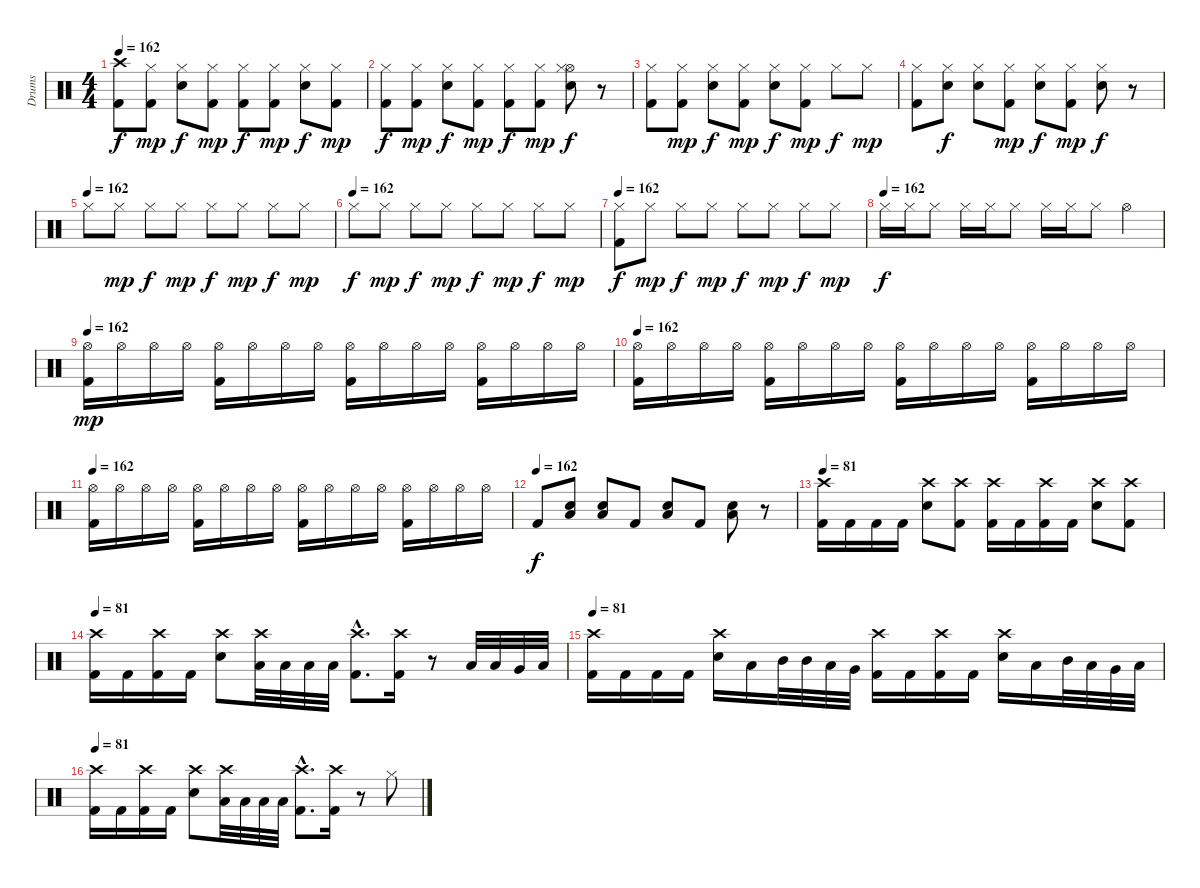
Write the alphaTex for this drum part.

\track ("Drums" "Drums") {instrument percussion}
\staff {score}
\articulation defaults
\ts (4 4)
\tempo 162
\clef neutral
\ks c
("Crash high (hit)" "Kick (hit) 2").8{dy f} ("Hi-Hat (closed)" "Kick (hit) 2").8{dy mp} ("Hi-Hat (closed)" "Electric Snare (hit)").8{dy f} ("Hi-Hat (closed)" "Kick (hit) 2").8{dy mp} ("Hi-Hat (closed)" "Kick (hit) 2").8{dy f} ("Hi-Hat (closed)" "Kick (hit) 2").8{dy mp} ("Hi-Hat (closed)" "Electric Snare (hit)").8{dy f} ("Hi-Hat (closed)" "Kick (hit) 2").8{dy mp} |
("Hi-Hat (closed)" "Kick (hit) 2").8{dy f} ("Hi-Hat (closed)" "Kick (hit) 2").8{dy mp} ("Hi-Hat (closed)" "Electric Snare (hit)").8{dy f} ("Hi-Hat (closed)" "Kick (hit) 2").8{dy mp} ("Hi-Hat (closed)" "Kick (hit) 2").8{dy f} ("Hi-Hat (closed)" "Kick (hit) 2").8{dy mp} ("Hi-Hat (open)" "Hi-Hat (closed)" "Electric Snare (hit)").8{dy f} r.8 |
("Hi-Hat (closed)" "Kick (hit) 2").8 ("Hi-Hat (closed)" "Kick (hit) 2").8{dy mp} ("Hi-Hat (closed)" "Electric Snare (hit)").8{dy f} ("Hi-Hat (closed)" "Kick (hit) 2").8{dy mp} ("Hi-Hat (closed)" "Electric Snare (hit)").8{dy f} ("Hi-Hat (closed)" "Kick (hit) 2").8{dy mp} "Hi-Hat (closed)".8{dy f} "Hi-Hat (closed)".8{dy mp} |
("Hi-Hat (closed)" "Kick (hit) 2").8 ("Hi-Hat (closed)" "Electric Snare (hit)").8{dy f} ("Hi-Hat (closed)" "Electric Snare (hit)").8 ("Hi-Hat (closed)" "Kick (hit) 2").8{dy mp} ("Hi-Hat (closed)" "Electric Snare (hit)").8{dy f} ("Hi-Hat (closed)" "Kick (hit) 2").8{dy mp} ("Hi-Hat (closed)" "Electric Snare (hit)").8{dy f} r.8 |
\tempo (162)
"Hi-Hat (closed)".8 "Hi-Hat (closed)".8{dy mp} "Hi-Hat (closed)".8{dy f} "Hi-Hat (closed)".8{dy mp} "Hi-Hat (closed)".8{dy f} "Hi-Hat (closed)".8{dy mp} "Hi-Hat (closed)".8{dy f} "Hi-Hat (closed)".8{dy mp} |
\tempo (162)
"Hi-Hat (closed)".8{dy f} "Hi-Hat (closed)".8{dy mp} "Hi-Hat (closed)".8{dy f} "Hi-Hat (closed)".8{dy mp} "Hi-Hat (closed)".8{dy f} "Hi-Hat (closed)".8{dy mp} "Hi-Hat (closed)".8{dy f} "Hi-Hat (closed)".8{dy mp} |
\tempo 162
("Hi-Hat (closed)" "Kick (hit) 2").8{dy f} "Hi-Hat (closed)".8{dy mp} "Hi-Hat (closed)".8{dy f} "Hi-Hat (closed)".8{dy mp} "Hi-Hat (closed)".8{dy f} "Hi-Hat (closed)".8{dy mp} "Hi-Hat (closed)".8{dy f} "Hi-Hat (closed)".8{dy mp} |
\tempo (162)
"Hi-Hat (closed)".16{dy f} "Hi-Hat (closed)".16 "Hi-Hat (closed)".8 "Hi-Hat (closed)".16 "Hi-Hat (closed)".16 "Hi-Hat (closed)".8 "Hi-Hat (closed)".16 "Hi-Hat (closed)".16 "Hi-Hat (closed)".8 "Hi-Hat (open)".4 |
\tempo 162
("Hi-Hat (open)" "Kick (hit) 2").16{dy mp} "Hi-Hat (open)".16 "Hi-Hat (open)".16 "Hi-Hat (open)".16 ("Hi-Hat (open)" "Kick (hit) 2").16 "Hi-Hat (open)".16 "Hi-Hat (open)".16 "Hi-Hat (open)".16 ("Hi-Hat (open)" "Kick (hit) 2").16 "Hi-Hat (open)".16 "Hi-Hat (open)".16 "Hi-Hat (open)".16 ("Hi-Hat (open)" "Kick (hit) 2").16 "Hi-Hat (open)".16 "Hi-Hat (open)".16 "Hi-Hat (open)".16 |
\tempo 162
("Hi-Hat (open)" "Kick (hit) 2").16 "Hi-Hat (open)".16 "Hi-Hat (open)".16 "Hi-Hat (open)".16 ("Hi-Hat (open)" "Kick (hit) 2").16 "Hi-Hat (open)".16 "Hi-Hat (open)".16 "Hi-Hat (open)".16 ("Hi-Hat (open)" "Kick (hit) 2").16 "Hi-Hat (open)".16 "Hi-Hat (open)".16 "Hi-Hat (open)".16 ("Hi-Hat (open)" "Kick (hit) 2").16 "Hi-Hat (open)".16 "Hi-Hat (open)".16 "Hi-Hat (open)".16 |
\tempo 162
("Hi-Hat (open)" "Kick (hit) 2").16 "Hi-Hat (open)".16 "Hi-Hat (open)".16 "Hi-Hat (open)".16 ("Hi-Hat (open)" "Kick (hit) 2").16 "Hi-Hat (open)".16 "Hi-Hat (open)".16 "Hi-Hat (open)".16 ("Hi-Hat (open)" "Kick (hit) 2").16 "Hi-Hat (open)".16 "Hi-Hat (open)".16 "Hi-Hat (open)".16 ("Hi-Hat (open)" "Kick (hit) 2").16 "Hi-Hat (open)".16 "Hi-Hat (open)".16 "Hi-Hat (open)".16 |
\tempo (162)
"Kick (hit) 2".8{dy f} ("Electric Snare (hit)" "Low Floor Tom (hit)").8 ("Electric Snare (hit)" "Low Floor Tom (hit)").8 "Kick (hit) 2".8 ("Electric Snare (hit)" "Low Floor Tom (hit)").8 "Kick (hit) 2".8 ("Electric Snare (hit)" "Low Floor Tom (hit)").8 r.8 |
\tempo 81
("Crash high (hit)" "Kick (hit) 2").16 "Kick (hit) 2".16 "Kick (hit) 2".16 "Kick (hit) 2".16 ("Crash high (hit)" "Electric Snare (hit)").8 ("Crash high (hit)" "Kick (hit) 2").8 ("Crash high (hit)" "Kick (hit) 2").16 "Kick (hit) 2".16 ("Crash high (hit)" "Kick (hit) 2").16 "Kick (hit) 2".16 ("Crash high (hit)" "Electric Snare (hit)").8 ("Crash high (hit)" "Kick (hit) 2").8 |
\tempo 81
("Crash high (hit)" "Kick (hit) 2").16 "Kick (hit) 2".16 ("Crash high (hit)" "Kick (hit) 2").16 "Kick (hit) 2".16 ("Crash high (hit)" "Electric Snare (hit)").8 ("Crash high (hit)" "Low Floor Tom (hit)").32 "Low Floor Tom (hit)".32 "Low Floor Tom (hit)".32 "Low Floor Tom (hit)".32 ("Crash high (hit)"{hac} "Kick (hit) 2"{hac}).8{d} ("Crash high (hit)" "Kick (hit) 2").16 r.8 "Low Tom (hit)".32 "Low Tom (hit)".32 "Very Low Tom (hit)".32 "Low Floor Tom (hit)".32 |
\tempo 81
("Crash high (hit)" "Kick (hit) 2").16 "Kick (hit) 2".16 "Kick (hit) 2".16 "Kick (hit) 2".16 ("Crash high (hit)" "Electric Snare (hit)").16 "Low Tom (hit)".16 "Mid Tom (hit)".32 "Mid Tom (hit)".32 "Low Tom (hit)".32 "Very Low Tom (hit)".32 ("Crash high (hit)" "Kick (hit) 2").16 "Kick (hit) 2".16 ("Crash high (hit)" "Kick (hit) 2").16 "Kick (hit) 2".16 ("Crash high (hit)" "Electric Snare (hit)").16 "Low Tom (hit)".16 "Mid Tom (hit)".32 "Low Tom (hit)".32 "Very Low Tom (hit)".32 "Low Floor Tom (hit)".32 |
\tempo 81
("Crash high (hit)" "Kick (hit) 2").16 "Kick (hit) 2".16 ("Crash high (hit)" "Kick (hit) 2").16 "Kick (hit) 2".16 ("Crash high (hit)" "Electric Snare (hit)").8 ("Crash high (hit)" "Low Floor Tom (hit)").32 "Low Floor Tom (hit)".32 "Low Floor Tom (hit)".32 "Low Floor Tom (hit)".32 ("Crash high (hit)"{hac} "Kick (hit) 2"{hac}).8{d} ("Crash high (hit)" "Kick (hit) 2").16 r.8 "Hi-Hat (closed)".8
